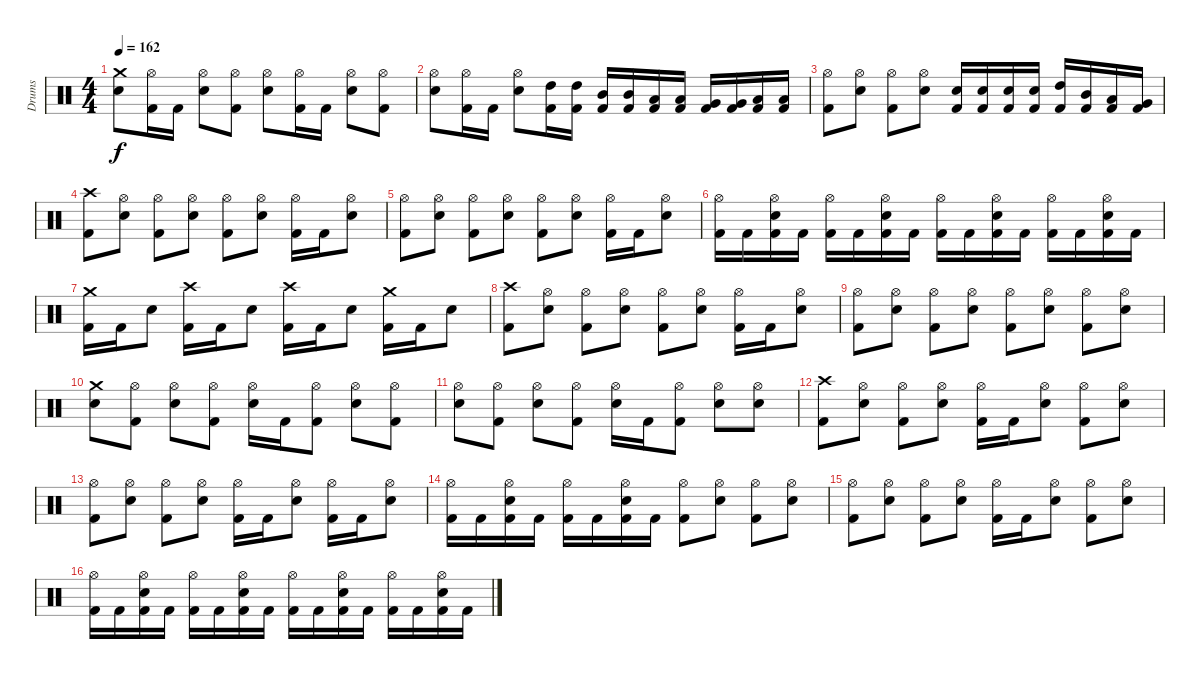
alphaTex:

\track ("Drums" "Drums") {instrument percussion}
\staff {score}
\articulation defaults
\ts (4 4)
\tempo 162
\clef neutral
\ks c
("Snare (hit) 2" "Crash medium (hit)").8{dy f} ("Kick (hit) 2" "Hi-Hat (open)").16 "Kick (hit) 2".16 ("Snare (hit) 2" "Hi-Hat (open)").8 ("Kick (hit) 2" "Hi-Hat (open)").8 ("Snare (hit) 2" "Hi-Hat (open)").8 ("Kick (hit) 2" "Hi-Hat (open)").16 "Kick (hit) 2".16 ("Snare (hit) 2" "Hi-Hat (open)").8 ("Kick (hit) 2" "Hi-Hat (open)").8 |
("Snare (hit) 2" "Hi-Hat (open)").8 ("Kick (hit) 2" "Hi-Hat (open)").16 "Kick (hit) 2".16 ("Snare (hit) 2" "Hi-Hat (open)").8 ("Kick (hit) 2" "High Tom (hit)").16 ("Kick (hit) 2" "High Tom (hit)").16 ("Kick (hit) 2" "Mid Tom (hit)").16 ("Kick (hit) 2" "Mid Tom (hit)").16 ("Kick (hit) 2" "Low Tom (hit)").16 ("Kick (hit) 2" "Low Tom (hit)").16 ("Kick (hit) 2" "Very Low Tom (hit)").16 ("Kick (hit) 2" "Very Low Tom (hit)").16 ("Kick (hit) 2" "Low Floor Tom (hit)").16 ("Kick (hit) 2" "Low Floor Tom (hit)").16 |
("Kick (hit) 2" "Hi-Hat (open)").8 ("Snare (hit) 2" "Hi-Hat (open)").8 ("Kick (hit) 2" "Hi-Hat (open)").8 ("Snare (hit) 2" "Hi-Hat (open)").8 ("Kick (hit) 2" "Snare (hit) 2").16 ("Kick (hit) 2" "Snare (hit) 2").16 ("Kick (hit) 2" "Snare (hit) 2").16 ("Kick (hit) 2" "Snare (hit) 2").16 ("Kick (hit) 2" "High Tom (hit)").16 ("Kick (hit) 2" "Mid Tom (hit)").16 ("Kick (hit) 2" "Low Tom (hit)").16 ("Kick (hit) 2" "Very Low Tom (hit)").16 |
\section ("" "")
("Kick (hit) 2" "Crash high (hit)").8 ("Snare (hit) 2" "Hi-Hat (open)").8 ("Kick (hit) 2" "Hi-Hat (open)").8 ("Snare (hit) 2" "Hi-Hat (open)").8 ("Kick (hit) 2" "Hi-Hat (open)").8 ("Snare (hit) 2" "Hi-Hat (open)").8 ("Kick (hit) 2" "Hi-Hat (open)").16 "Kick (hit) 2".16 ("Snare (hit) 2" "Hi-Hat (open)").8 |
("Kick (hit) 2" "Hi-Hat (open)").8 ("Snare (hit) 2" "Hi-Hat (open)").8 ("Kick (hit) 2" "Hi-Hat (open)").8 ("Snare (hit) 2" "Hi-Hat (open)").8 ("Kick (hit) 2" "Hi-Hat (open)").8 ("Snare (hit) 2" "Hi-Hat (open)").8 ("Kick (hit) 2" "Hi-Hat (open)").16 "Kick (hit) 2".16 ("Snare (hit) 2" "Hi-Hat (open)").8 |
("Kick (hit) 2" "Hi-Hat (open)").16 "Kick (hit) 2".16 ("Kick (hit) 2" "Snare (hit) 2" "Hi-Hat (open)").16 "Kick (hit) 2".16 ("Kick (hit) 2" "Hi-Hat (open)").16 "Kick (hit) 2".16 ("Kick (hit) 2" "Snare (hit) 2" "Hi-Hat (open)").16 "Kick (hit) 2".16 ("Kick (hit) 2" "Hi-Hat (open)").16 "Kick (hit) 2".16 ("Kick (hit) 2" "Snare (hit) 2" "Hi-Hat (open)").16 "Kick (hit) 2".16 ("Kick (hit) 2" "Hi-Hat (open)").16 "Kick (hit) 2".16 ("Kick (hit) 2" "Snare (hit) 2" "Hi-Hat (open)").16 "Kick (hit) 2".16 |
("Kick (hit) 2" "Crash medium (hit)").16 "Kick (hit) 2".16 "Snare (hit) 2".8 ("Kick (hit) 2" "Crash high (hit)").16 "Kick (hit) 2".16 "Snare (hit) 2".8 ("Kick (hit) 2" "Crash high (hit)").16 "Kick (hit) 2".16 "Snare (hit) 2".8 ("Kick (hit) 2" "Crash medium (hit)").16 "Kick (hit) 2".16 "Snare (hit) 2".8 |
("Kick (hit) 2" "Crash high (hit)").8 ("Snare (hit) 2" "Hi-Hat (open)").8 ("Kick (hit) 2" "Hi-Hat (open)").8 ("Snare (hit) 2" "Hi-Hat (open)").8 ("Kick (hit) 2" "Hi-Hat (open)").8 ("Snare (hit) 2" "Hi-Hat (open)").8 ("Kick (hit) 2" "Hi-Hat (open)").16 "Kick (hit) 2".16 ("Snare (hit) 2" "Hi-Hat (open)").8 |
("Kick (hit) 2" "Hi-Hat (open)").8 ("Snare (hit) 2" "Hi-Hat (open)").8 ("Kick (hit) 2" "Hi-Hat (open)").8 ("Snare (hit) 2" "Hi-Hat (open)").8 ("Kick (hit) 2" "Hi-Hat (open)").8 ("Snare (hit) 2" "Hi-Hat (open)").8 ("Kick (hit) 2" "Hi-Hat (open)").8 ("Snare (hit) 2" "Hi-Hat (open)").8 |
("Snare (hit) 2" "Crash medium (hit)").8 ("Kick (hit) 2" "Hi-Hat (open)").8 ("Snare (hit) 2" "Hi-Hat (open)").8 ("Kick (hit) 2" "Hi-Hat (open)").8 ("Snare (hit) 2" "Hi-Hat (open)").16 "Kick (hit) 2".16 ("Kick (hit) 2" "Hi-Hat (open)").8 ("Snare (hit) 2" "Hi-Hat (open)").8 ("Kick (hit) 2" "Hi-Hat (open)").8 |
("Snare (hit) 2" "Hi-Hat (open)").8 ("Kick (hit) 2" "Hi-Hat (open)").8 ("Snare (hit) 2" "Hi-Hat (open)").8 ("Kick (hit) 2" "Hi-Hat (open)").8 ("Snare (hit) 2" "Hi-Hat (open)").16 "Kick (hit) 2".16 ("Kick (hit) 2" "Hi-Hat (open)").8 ("Snare (hit) 2" "Hi-Hat (open)").8 ("Snare (hit) 2" "Hi-Hat (open)").8 |
("Kick (hit) 2" "Crash high (hit)").8 ("Snare (hit) 2" "Hi-Hat (open)").8 ("Kick (hit) 2" "Hi-Hat (open)").8 ("Snare (hit) 2" "Hi-Hat (open)").8 ("Kick (hit) 2" "Hi-Hat (open)").16 "Kick (hit) 2".16 ("Snare (hit) 2" "Hi-Hat (open)").8 ("Kick (hit) 2" "Hi-Hat (open)").8 ("Snare (hit) 2" "Hi-Hat (open)").8 |
("Kick (hit) 2" "Hi-Hat (open)").8 ("Snare (hit) 2" "Hi-Hat (open)").8 ("Kick (hit) 2" "Hi-Hat (open)").8 ("Snare (hit) 2" "Hi-Hat (open)").8 ("Kick (hit) 2" "Hi-Hat (open)").16 "Kick (hit) 2".16 ("Snare (hit) 2" "Hi-Hat (open)").8 ("Kick (hit) 2" "Hi-Hat (open)").16 "Kick (hit) 2".16 ("Snare (hit) 2" "Hi-Hat (open)").8 |
("Kick (hit) 2" "Hi-Hat (open)").16 "Kick (hit) 2".16 ("Kick (hit) 2" "Snare (hit) 2" "Hi-Hat (open)").16 "Kick (hit) 2".16 ("Kick (hit) 2" "Hi-Hat (open)").16 "Kick (hit) 2".16 ("Kick (hit) 2" "Snare (hit) 2" "Hi-Hat (open)").16 "Kick (hit) 2".16 ("Kick (hit) 2" "Hi-Hat (open)").8 ("Snare (hit) 2" "Hi-Hat (open)").8 ("Kick (hit) 2" "Hi-Hat (open)").8 ("Snare (hit) 2" "Hi-Hat (open)").8 |
("Kick (hit) 2" "Hi-Hat (open)").8 ("Snare (hit) 2" "Hi-Hat (open)").8 ("Kick (hit) 2" "Hi-Hat (open)").8 ("Snare (hit) 2" "Hi-Hat (open)").8 ("Kick (hit) 2" "Hi-Hat (open)").16 "Kick (hit) 2".16 ("Snare (hit) 2" "Hi-Hat (open)").8 ("Kick (hit) 2" "Hi-Hat (open)").8 ("Snare (hit) 2" "Hi-Hat (open)").8 |
("Kick (hit) 2" "Hi-Hat (open)").16 "Kick (hit) 2".16 ("Kick (hit) 2" "Snare (hit) 2" "Hi-Hat (open)").16 "Kick (hit) 2".16 ("Kick (hit) 2" "Hi-Hat (open)").16 "Kick (hit) 2".16 ("Kick (hit) 2" "Snare (hit) 2" "Hi-Hat (open)").16 "Kick (hit) 2".16 ("Kick (hit) 2" "Hi-Hat (open)").16 "Kick (hit) 2".16 ("Kick (hit) 2" "Snare (hit) 2" "Hi-Hat (open)").16 "Kick (hit) 2".16 ("Kick (hit) 2" "Hi-Hat (open)").16 "Kick (hit) 2".16 ("Kick (hit) 2" "Snare (hit) 2" "Hi-Hat (open)").16 "Kick (hit) 2".16
